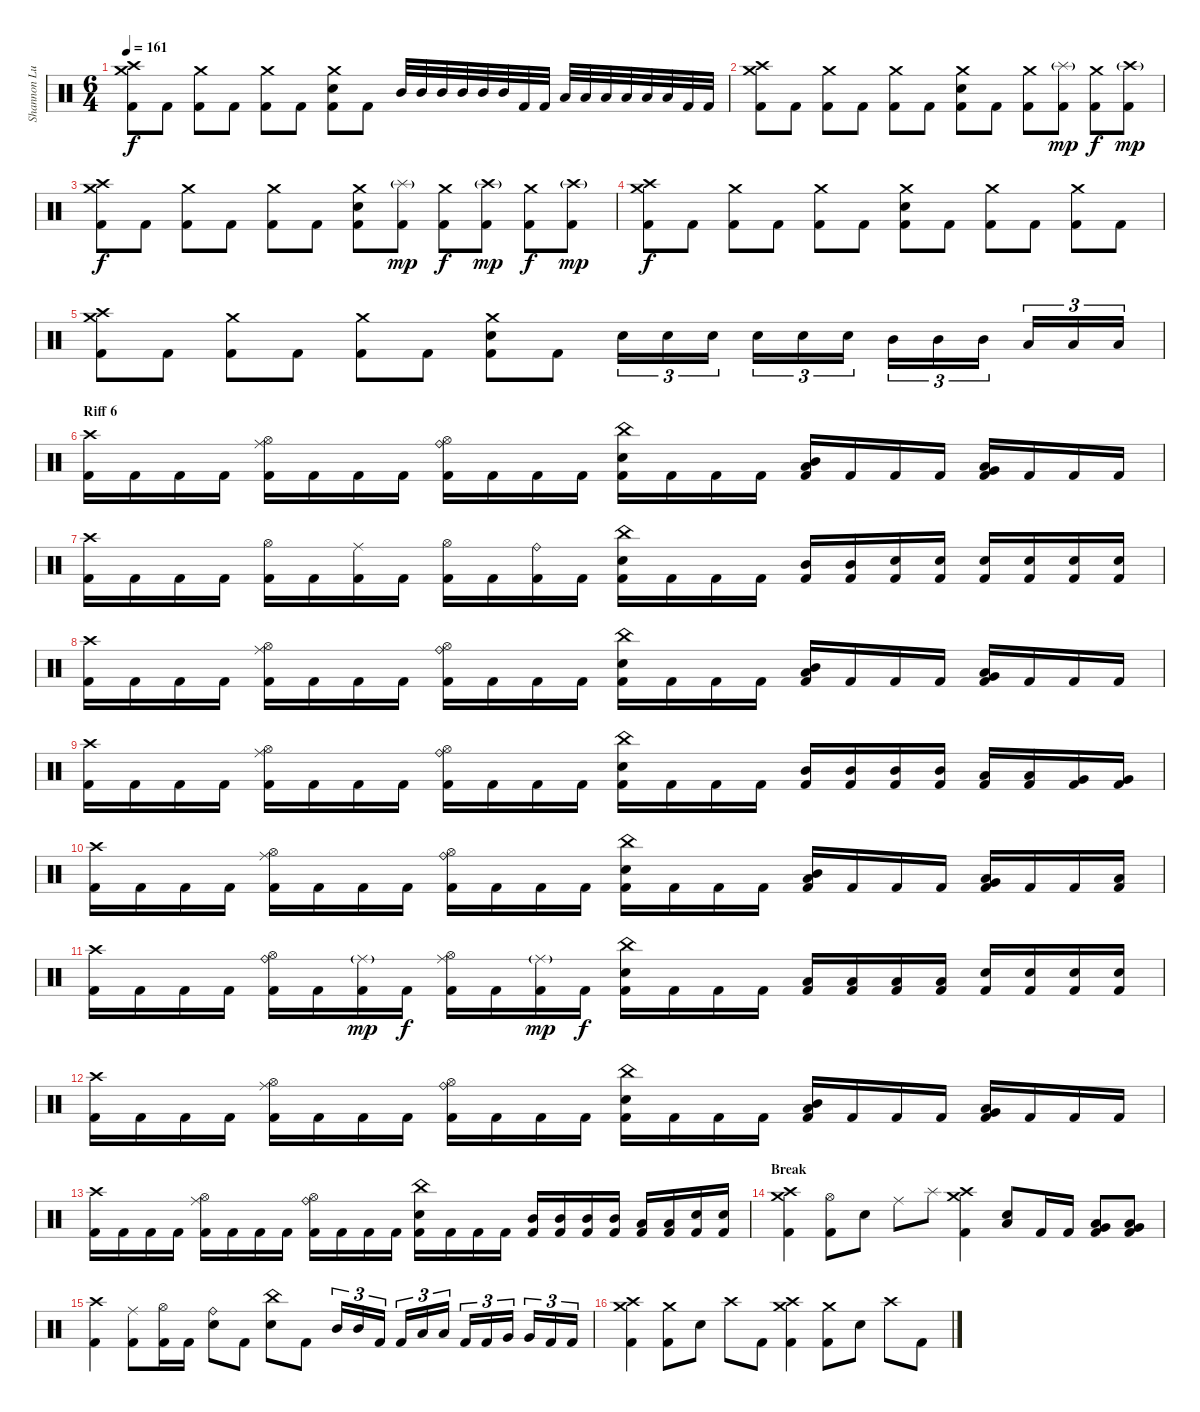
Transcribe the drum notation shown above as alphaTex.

\track ("Shannon Lucas (Drums)" "Shannon Lu") {instrument percussion}
\staff {score}
\articulation defaults
\ts (6 4)
\tempo 161
\clef neutral
\ks c
("Crash medium (hit)" "Crash high (hit)" "Kick (hit) 2").8{dy f} "Kick (hit) 2".8 ("Crash medium (hit)" "Kick (hit) 2").8 "Kick (hit) 2".8 ("Crash medium (hit)" "Kick (hit) 2").8 "Kick (hit) 2".8 ("Crash medium (hit)" "Snare (hit) 2" "Kick (hit) 2").8 "Kick (hit) 2".8 "Mid Tom (hit)".32 "Mid Tom (hit)".32 "Mid Tom (hit)".32 "Mid Tom (hit)".32 "Mid Tom (hit)".32 "Mid Tom (hit)".32 "Kick (hit) 2".32 "Kick (hit) 2".32 "Low Tom (hit)".32 "Low Tom (hit)".32 "Low Tom (hit)".32 "Low Tom (hit)".32 "Low Tom (hit)".32 "Low Tom (hit)".32 "Kick (hit) 2".32 "Kick (hit) 2".32 |
("Crash medium (hit)" "Crash high (hit)" "Kick (hit) 2").8 "Kick (hit) 2".8 ("Crash medium (hit)" "Kick (hit) 2").8 "Kick (hit) 2".8 ("Crash medium (hit)" "Kick (hit) 2").8 "Kick (hit) 2".8 ("Crash medium (hit)" "Snare (hit) 2" "Kick (hit) 2").8 "Kick (hit) 2".8 ("Crash medium (hit)" "Kick (hit) 2").8 ("Splash (hit)"{g} "Kick (hit) 2").8{dy mp} ("Crash medium (hit)" "Kick (hit) 2").8{dy f} ("Crash high (hit)"{g} "Kick (hit) 2").8{dy mp} |
("Crash medium (hit)" "Crash high (hit)" "Kick (hit) 2").8{dy f} "Kick (hit) 2".8 ("Crash medium (hit)" "Kick (hit) 2").8 "Kick (hit) 2".8 ("Crash medium (hit)" "Kick (hit) 2").8 "Kick (hit) 2".8 ("Crash medium (hit)" "Snare (hit) 2" "Kick (hit) 2").8 ("Splash (hit)"{g} "Kick (hit) 2").8{dy mp} ("Crash medium (hit)" "Kick (hit) 2").8{dy f} ("Crash high (hit)"{g} "Kick (hit) 2").8{dy mp} ("Crash medium (hit)" "Kick (hit) 2").8{dy f} ("Crash high (hit)"{g} "Kick (hit) 2").8{dy mp} |
("Crash medium (hit)" "Crash high (hit)" "Kick (hit) 2").8{dy f} "Kick (hit) 2".8 ("Crash medium (hit)" "Kick (hit) 2").8 "Kick (hit) 2".8 ("Crash medium (hit)" "Kick (hit) 2").8 "Kick (hit) 2".8 ("Crash medium (hit)" "Snare (hit) 2" "Kick (hit) 2").8 "Kick (hit) 2".8 ("Crash medium (hit)" "Kick (hit) 2").8 "Kick (hit) 2".8 ("Crash medium (hit)" "Kick (hit) 2").8 "Kick (hit) 2".8 |
("Crash medium (hit)" "Crash high (hit)" "Kick (hit) 2").8 "Kick (hit) 2".8 ("Crash medium (hit)" "Kick (hit) 2").8 "Kick (hit) 2".8 ("Crash medium (hit)" "Kick (hit) 2").8 "Kick (hit) 2".8 ("Crash medium (hit)" "Snare (hit) 2" "Kick (hit) 2").8 "Kick (hit) 2".8 "Snare (hit) 2".16{tu (3 2)} "Snare (hit) 2".16{tu (3 2)} "Snare (hit) 2".16{tu (3 2)} "Snare (hit) 2".16{tu (3 2)} "Snare (hit) 2".16{tu (3 2)} "Snare (hit) 2".16{tu (3 2)} "Mid Tom (hit)".16{tu (3 2)} "Mid Tom (hit)".16{tu (3 2)} "Mid Tom (hit)".16{tu (3 2)} "Low Tom (hit)".16{tu (3 2)} "Low Tom (hit)".16{tu (3 2)} "Low Tom (hit)".16{tu (3 2)} |
\section ("" "Riff 6")
("Crash high (hit)" "Kick (hit) 2").16 "Kick (hit) 2".16 "Kick (hit) 2".16 "Kick (hit) 2".16 ("Ride (middle)" "Hi-Hat (open)" "Kick (hit) 2").16 "Kick (hit) 2".16 "Kick (hit) 2".16 "Kick (hit) 2".16 ("Ride (bell)" "Hi-Hat (open)" "Kick (hit) 2").16 "Kick (hit) 2".16 "Kick (hit) 2".16 "Kick (hit) 2".16 ("China (hit)" "Snare (hit) 2" "Kick (hit) 2").16 "Kick (hit) 2".16 "Kick (hit) 2".16 "Kick (hit) 2".16 ("Mid Tom (hit)" "Low Tom (hit)" "Kick (hit) 2").16 "Kick (hit) 2".16 "Kick (hit) 2".16 "Kick (hit) 2".16 ("Low Tom (hit)" "Very Low Tom (hit)" "Kick (hit) 2").16 "Kick (hit) 2".16 "Kick (hit) 2".16 "Kick (hit) 2".16 |
("Crash high (hit)" "Kick (hit) 2").16 "Kick (hit) 2".16 "Kick (hit) 2".16 "Kick (hit) 2".16 ("Hi-Hat (open)" "Kick (hit) 2").16 "Kick (hit) 2".16 ("Ride (middle)" "Kick (hit) 2").16 "Kick (hit) 2".16 ("Hi-Hat (open)" "Kick (hit) 2").16 "Kick (hit) 2".16 ("Ride (bell)" "Kick (hit) 2").16 "Kick (hit) 2".16 ("China (hit)" "Snare (hit) 2" "Kick (hit) 2").16 "Kick (hit) 2".16 "Kick (hit) 2".16 "Kick (hit) 2".16 ("Mid Tom (hit)" "Kick (hit) 2").16 ("Mid Tom (hit)" "Kick (hit) 2").16 ("Snare (hit) 2" "Kick (hit) 2").16 ("Snare (hit) 2" "Kick (hit) 2").16 ("Snare (hit) 2" "Kick (hit) 2").16 ("Snare (hit) 2" "Kick (hit) 2").16 ("Snare (hit) 2" "Kick (hit) 2").16 ("Snare (hit) 2" "Kick (hit) 2").16 |
("Crash high (hit)" "Kick (hit) 2").16 "Kick (hit) 2".16 "Kick (hit) 2".16 "Kick (hit) 2".16 ("Ride (middle)" "Hi-Hat (open)" "Kick (hit) 2").16 "Kick (hit) 2".16 "Kick (hit) 2".16 "Kick (hit) 2".16 ("Ride (bell)" "Hi-Hat (open)" "Kick (hit) 2").16 "Kick (hit) 2".16 "Kick (hit) 2".16 "Kick (hit) 2".16 ("China (hit)" "Snare (hit) 2" "Kick (hit) 2").16 "Kick (hit) 2".16 "Kick (hit) 2".16 "Kick (hit) 2".16 ("Mid Tom (hit)" "Low Tom (hit)" "Kick (hit) 2").16 "Kick (hit) 2".16 "Kick (hit) 2".16 "Kick (hit) 2".16 ("Low Tom (hit)" "Very Low Tom (hit)" "Kick (hit) 2").16 "Kick (hit) 2".16 "Kick (hit) 2".16 "Kick (hit) 2".16 |
("Crash high (hit)" "Kick (hit) 2").16 "Kick (hit) 2".16 "Kick (hit) 2".16 "Kick (hit) 2".16 ("Ride (middle)" "Hi-Hat (open)" "Kick (hit) 2").16 "Kick (hit) 2".16 "Kick (hit) 2".16 "Kick (hit) 2".16 ("Ride (bell)" "Hi-Hat (open)" "Kick (hit) 2").16 "Kick (hit) 2".16 "Kick (hit) 2".16 "Kick (hit) 2".16 ("China (hit)" "Snare (hit) 2" "Kick (hit) 2").16 "Kick (hit) 2".16 "Kick (hit) 2".16 "Kick (hit) 2".16 ("Mid Tom (hit)" "Kick (hit) 2").16 ("Mid Tom (hit)" "Kick (hit) 2").16 ("Mid Tom (hit)" "Kick (hit) 2").16 ("Mid Tom (hit)" "Kick (hit) 2").16 ("Low Tom (hit)" "Kick (hit) 2").16 ("Low Tom (hit)" "Kick (hit) 2").16 ("Very Low Tom (hit)" "Kick (hit) 2").16 ("Very Low Tom (hit)" "Kick (hit) 2").16 |
("Crash high (hit)" "Kick (hit) 2").16 "Kick (hit) 2".16 "Kick (hit) 2".16 "Kick (hit) 2".16 ("Ride (middle)" "Hi-Hat (open)" "Kick (hit) 2").16 "Kick (hit) 2".16 "Kick (hit) 2".16 "Kick (hit) 2".16 ("Ride (bell)" "Hi-Hat (open)" "Kick (hit) 2").16 "Kick (hit) 2".16 "Kick (hit) 2".16 "Kick (hit) 2".16 ("China (hit)" "Snare (hit) 2" "Kick (hit) 2").16 "Kick (hit) 2".16 "Kick (hit) 2".16 "Kick (hit) 2".16 ("Mid Tom (hit)" "Low Tom (hit)" "Kick (hit) 2").16 "Kick (hit) 2".16 "Kick (hit) 2".16 "Kick (hit) 2".16 ("Low Tom (hit)" "Very Low Tom (hit)" "Kick (hit) 2").16 "Kick (hit) 2".16 "Kick (hit) 2".16 ("Low Floor Tom (hit)" "Kick (hit) 2").16 |
("Crash high (hit)" "Kick (hit) 2").16 "Kick (hit) 2".16 "Kick (hit) 2".16 "Kick (hit) 2".16 ("Hi-Hat (open)" "Ride (bell)" "Kick (hit) 2").16 "Kick (hit) 2".16 ("Ride (middle)"{g} "Kick (hit) 2").16{dy mp} "Kick (hit) 2".16{dy f} ("Ride (middle)" "Hi-Hat (open)" "Kick (hit) 2").16 "Kick (hit) 2".16 ("Ride (middle)"{g} "Kick (hit) 2").16{dy mp} "Kick (hit) 2".16{dy f} ("China (hit)" "Snare (hit) 2" "Kick (hit) 2").16 "Kick (hit) 2".16 "Kick (hit) 2".16 "Kick (hit) 2".16 ("Low Tom (hit)"{pm} "Kick (hit) 2").16 ("Low Tom (hit)"{pm} "Kick (hit) 2").16 ("Low Tom (hit)"{pm} "Kick (hit) 2").16 ("Low Tom (hit)"{pm} "Kick (hit) 2").16 ("Snare (hit) 2" "Kick (hit) 2").16 ("Snare (hit) 2" "Kick (hit) 2").16 ("Snare (hit) 2" "Kick (hit) 2").16 ("Snare (hit) 2" "Kick (hit) 2").16 |
("Crash high (hit)" "Kick (hit) 2").16 "Kick (hit) 2".16 "Kick (hit) 2".16 "Kick (hit) 2".16 ("Ride (middle)" "Hi-Hat (open)" "Kick (hit) 2").16 "Kick (hit) 2".16 "Kick (hit) 2".16 "Kick (hit) 2".16 ("Ride (bell)" "Hi-Hat (open)" "Kick (hit) 2").16 "Kick (hit) 2".16 "Kick (hit) 2".16 "Kick (hit) 2".16 ("China (hit)" "Snare (hit) 2" "Kick (hit) 2").16 "Kick (hit) 2".16 "Kick (hit) 2".16 "Kick (hit) 2".16 ("Mid Tom (hit)" "Low Tom (hit)" "Kick (hit) 2").16 "Kick (hit) 2".16 "Kick (hit) 2".16 "Kick (hit) 2".16 ("Low Tom (hit)" "Very Low Tom (hit)" "Kick (hit) 2").16 "Kick (hit) 2".16 "Kick (hit) 2".16 "Kick (hit) 2".16 |
("Crash high (hit)" "Kick (hit) 2").16 "Kick (hit) 2".16 "Kick (hit) 2".16 "Kick (hit) 2".16 ("Ride (middle)" "Hi-Hat (open)" "Kick (hit) 2").16 "Kick (hit) 2".16 "Kick (hit) 2".16 "Kick (hit) 2".16 ("Ride (bell)" "Hi-Hat (open)" "Kick (hit) 2").16 "Kick (hit) 2".16 "Kick (hit) 2".16 "Kick (hit) 2".16 ("China (hit)" "Snare (hit) 2" "Kick (hit) 2").16 "Kick (hit) 2".16 "Kick (hit) 2".16 "Kick (hit) 2".16 ("Mid Tom (hit)" "Kick (hit) 2").16 ("Mid Tom (hit)" "Kick (hit) 2").16 ("Mid Tom (hit)" "Kick (hit) 2").16 ("Mid Tom (hit)" "Kick (hit) 2").16 ("Low Tom (hit)" "Kick (hit) 2").16 ("Low Tom (hit)" "Kick (hit) 2").16 ("Snare (hit) 2" "Kick (hit) 2").16 ("Snare (hit) 2" "Kick (hit) 2").16 |
\section ("" "Break")
("Crash high (hit)" "Crash medium (hit)" "Kick (hit) 2").4 ("Hi-Hat (open)" "Kick (hit) 2").8 "Snare (hit) 2".8 "Ride (middle)".8 "Splash (hit)".8 ("Crash high (hit)" "Crash medium (hit)" "Kick (hit) 2").4 ("Low Floor Tom (hit)" "Snare (hit) 2").8 "Kick (hit) 2".16 "Kick (hit) 2".16 ("Low Tom (hit)" "Very Low Tom (hit)" "Kick (hit) 2").8 ("Very Low Tom (hit)" "Low Floor Tom (hit)" "Kick (hit) 2").8 |
("Crash high (hit)" "Kick (hit) 2").4 ("Ride (middle)" "Kick (hit) 2").8 ("Hi-Hat (open)" "Kick (hit) 2").16 "Kick (hit) 2".16 ("Ride (bell)" "Snare (hit) 2").8 "Kick (hit) 2".8 ("China (hit)" "Snare (hit) 2").8 "Kick (hit) 2".8 "Mid Tom (hit)".16{tu (3 2)} "Mid Tom (hit)".16{tu (3 2)} "Kick (hit) 2".16{tu (3 2)} "Kick (hit) 2".16{tu (3 2)} "Low Tom (hit)".16{tu (3 2)} "Low Tom (hit)".16{tu (3 2)} "Kick (hit) 2".16{tu (3 2)} "Kick (hit) 2".16{tu (3 2)} "Very Low Tom (hit)".16{tu (3 2)} "Very Low Tom (hit)".16{tu (3 2)} "Kick (hit) 2".16{tu (3 2)} "Kick (hit) 2".16{tu (3 2)} |
("Crash medium (hit)" "Crash high (hit)" "Kick (hit) 2").4 ("Crash medium (hit)" "Kick (hit) 2").8 "Snare (hit) 2".8 "Crash high (hit)".8 "Kick (hit) 2".8 ("Crash high (hit)" "Crash medium (hit)" "Kick (hit) 2").4 ("Crash medium (hit)" "Kick (hit) 2").8 "Snare (hit) 2".8 "Crash high (hit)".8 "Kick (hit) 2".8
